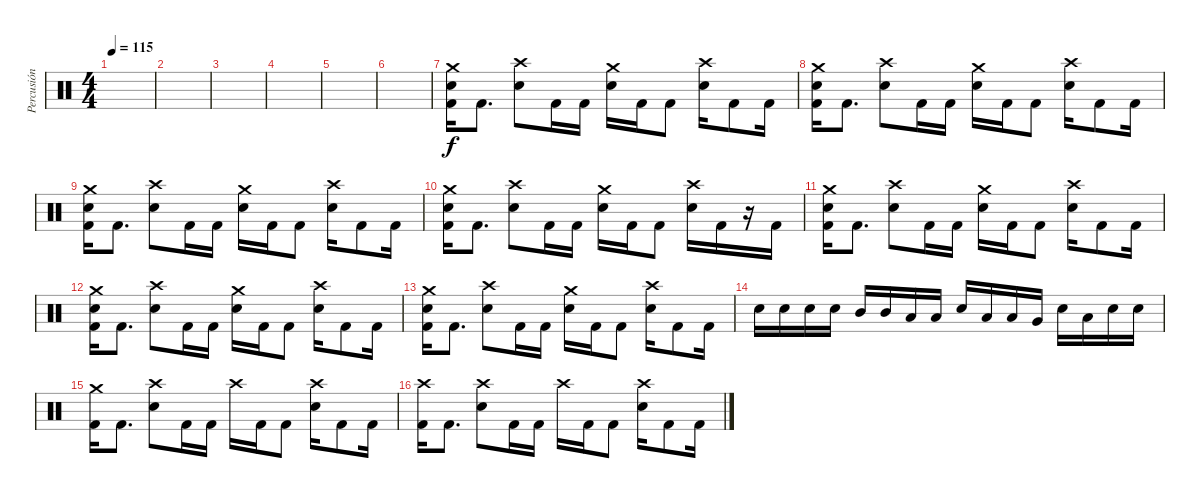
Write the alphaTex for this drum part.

\track ("Percusión" "Percusión") {instrument percussion}
\staff {score}
\articulation defaults
\ts (4 4)
\tempo 115
\clef neutral
\ks c
|
|
|
|
|
|
("Crash medium (hit)" "Snare (hit) 2" "Kick (hit) 2").16 "Kick (hit) 2".8{d} ("Crash high (hit)" "Snare (hit) 2").8 "Kick (hit) 2".16 "Kick (hit) 2".16 ("Crash medium (hit)" "Snare (hit) 2").16 "Kick (hit) 2".16 "Kick (hit) 2".8 ("Crash high (hit)" "Snare (hit) 2").16 "Kick (hit) 2".8 "Kick (hit) 2".16 |
("Crash medium (hit)" "Snare (hit) 2" "Kick (hit) 2").16 "Kick (hit) 2".8{d} ("Crash high (hit)" "Snare (hit) 2").8 "Kick (hit) 2".16 "Kick (hit) 2".16 ("Crash medium (hit)" "Snare (hit) 2").16 "Kick (hit) 2".16 "Kick (hit) 2".8 ("Crash high (hit)" "Snare (hit) 2").16 "Kick (hit) 2".8 "Kick (hit) 2".16 |
("Crash medium (hit)" "Snare (hit) 2" "Kick (hit) 2").16 "Kick (hit) 2".8{d} ("Crash high (hit)" "Snare (hit) 2").8 "Kick (hit) 2".16 "Kick (hit) 2".16 ("Crash medium (hit)" "Snare (hit) 2").16 "Kick (hit) 2".16 "Kick (hit) 2".8 ("Crash high (hit)" "Snare (hit) 2").16 "Kick (hit) 2".8 "Kick (hit) 2".16 |
("Crash medium (hit)" "Snare (hit) 2" "Kick (hit) 2").16 "Kick (hit) 2".8{d} ("Crash high (hit)" "Snare (hit) 2").8 "Kick (hit) 2".16 "Kick (hit) 2".16 ("Crash medium (hit)" "Snare (hit) 2").16 "Kick (hit) 2".16 "Kick (hit) 2".8 ("Crash high (hit)" "Snare (hit) 2").16 "Kick (hit) 2".16 r.16 "Kick (hit) 2".16 |
("Crash medium (hit)" "Snare (hit) 2" "Kick (hit) 2").16 "Kick (hit) 2".8{d} ("Crash high (hit)" "Snare (hit) 2").8 "Kick (hit) 2".16 "Kick (hit) 2".16 ("Crash medium (hit)" "Snare (hit) 2").16 "Kick (hit) 2".16 "Kick (hit) 2".8 ("Crash high (hit)" "Snare (hit) 2").16 "Kick (hit) 2".8 "Kick (hit) 2".16 |
("Crash medium (hit)" "Snare (hit) 2" "Kick (hit) 2").16 "Kick (hit) 2".8{d} ("Crash high (hit)" "Snare (hit) 2").8 "Kick (hit) 2".16 "Kick (hit) 2".16 ("Crash medium (hit)" "Snare (hit) 2").16 "Kick (hit) 2".16 "Kick (hit) 2".8 ("Crash high (hit)" "Snare (hit) 2").16 "Kick (hit) 2".8 "Kick (hit) 2".16 |
("Crash medium (hit)" "Snare (hit) 2" "Kick (hit) 2").16 "Kick (hit) 2".8{d} ("Crash high (hit)" "Snare (hit) 2").8 "Kick (hit) 2".16 "Kick (hit) 2".16 ("Crash medium (hit)" "Snare (hit) 2").16 "Kick (hit) 2".16 "Kick (hit) 2".8 ("Crash high (hit)" "Snare (hit) 2").16 "Kick (hit) 2".8 "Kick (hit) 2".16 |
"Snare (hit) 2".16 "Snare (hit) 2".16 "Snare (hit) 2".16 "Snare (hit) 2".16 "Mid Tom (hit)".16 "Mid Tom (hit)".16 "Low Tom (hit)".16 "Low Tom (hit)".16 "Snare (hit) 2".16 "Low Tom (hit)".16 "Low Tom (hit)".16 "Very Low Tom (hit)".16 "Snare (hit) 2".16 "Low Tom (hit)".16 "Snare (hit) 2".16 "Snare (hit) 2".16 |
("Crash medium (hit)" "Kick (hit) 2").16 "Kick (hit) 2".8{d} ("Crash high (hit)" "Snare (hit) 2").8 "Kick (hit) 2".16 "Kick (hit) 2".16 "Crash high (hit)".16 "Kick (hit) 2".16 "Kick (hit) 2".8 ("Crash high (hit)" "Snare (hit) 2").16 "Kick (hit) 2".8 "Kick (hit) 2".16 |
("Crash high (hit)" "Kick (hit) 2").16 "Kick (hit) 2".8{d} ("Crash high (hit)" "Snare (hit) 2").8 "Kick (hit) 2".16 "Kick (hit) 2".16 "Crash high (hit)".16 "Kick (hit) 2".16 "Kick (hit) 2".8 ("Crash high (hit)" "Snare (hit) 2").16 "Kick (hit) 2".8 "Kick (hit) 2".16
